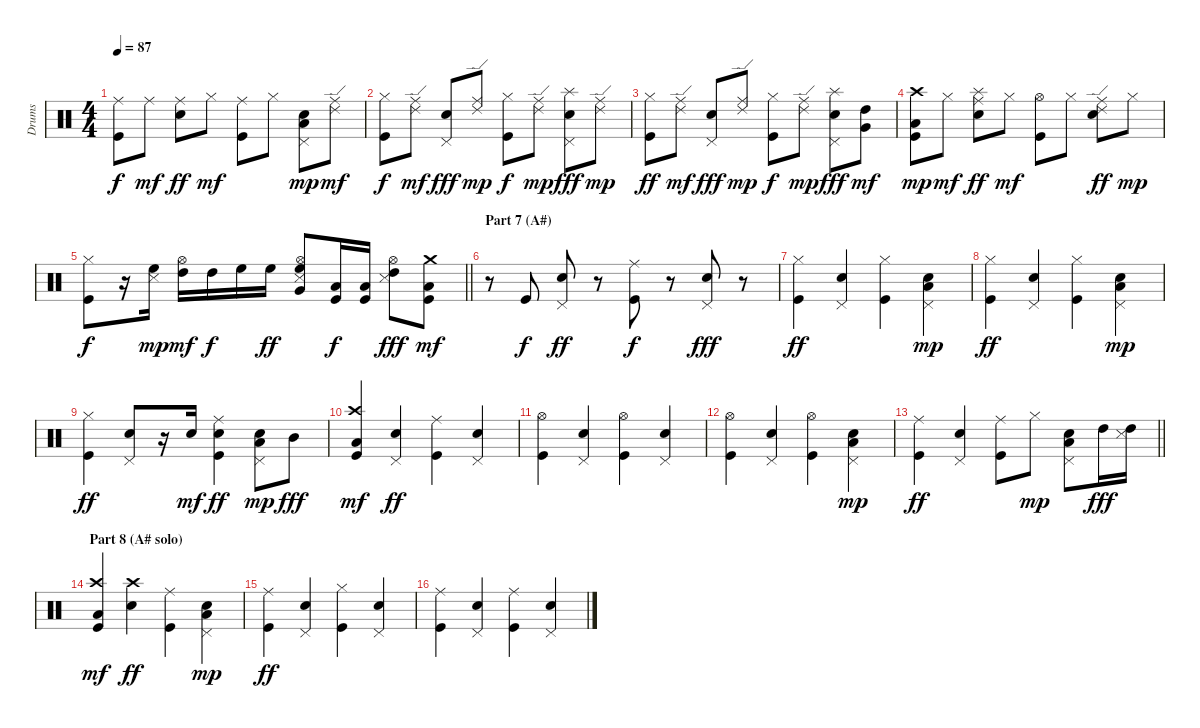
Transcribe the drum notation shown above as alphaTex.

\track ("Drums" "Drums") {instrument percussion}
\staff {score}
\articulation defaults
\ts (4 4)
\tempo 87
\clef neutral
\ks c
("Ride (middle)" "Kick (hit)").8{dy f} "Ride (middle)".8{dy mf} ("Ride (middle)" "Snare (hit) 2").8{dy ff} "Hi-Hat (closed)".8{dy mf} ("Ride (middle)" "Kick (hit)").8 "Hi-Hat (closed)".8 ("Pedal Hi-Hat (hit)" "Snare (hit) 2" "Low Tom (hit)").8{dy mp} ("Ride (middle)" "Ride (edge) 2").8{dy mf} |
("Hi-Hat (closed)" "Kick (hit)").8{dy f} ("Ride (middle)" "Ride (edge) 2").8{dy mf} ("Pedal Hi-Hat (hit)" "Snare (hit) 2").8{dy fff} ("Ride (middle)" "Ride (edge) 2").8{dy mp} ("Hi-Hat (closed)" "Kick (hit)").8{dy f} ("Ride (middle)" "Ride (edge) 2").8{dy mp} ("Splash (hit)" "Pedal Hi-Hat (hit)" "Snare (hit) 2").8{dy fff} ("Ride (middle)" "Ride (edge) 2").8{dy mp} |
("Hi-Hat (closed)" "Kick (hit)").8{dy ff} ("Ride (middle)" "Ride (edge) 2").8{dy mf} ("Pedal Hi-Hat (hit)" "Snare (hit) 2").8{dy fff} ("Ride (middle)" "Ride (edge) 2").8{dy mp} ("Hi-Hat (closed)" "Kick (hit)").8{dy f} ("Ride (middle)" "Ride (edge) 2").8{dy mp} ("Splash (hit)" "Pedal Hi-Hat (hit)" "Snare (hit) 2").8{dy fff} ("High Tom (hit)" "Very Low Tom (hit)").8{dy mf} |
("Crash high (hit)" "Kick (hit)" "Low Floor Tom (hit)").8{dy mp} "Hi-Hat (closed)".8{dy mf} ("Splash (hit)" "Ride (middle)" "Snare (hit) 2").8{dy ff} "Hi-Hat (closed)".8{dy mf} ("Hi-Hat (open)" "Kick (hit)").8 "Hi-Hat (closed)".8 ("Ride (edge) 2" "Ride (middle)" "Snare (hit) 2").8{dy ff} "Hi-Hat (closed)".8{dy mp} |
\barLineRight lightlight
("Hi-Hat (closed)" "Kick (hit)").8{dy f} r.16 ("High Floor Tom (hit)" "Snare (side stick) 3").16{dy mp} ("Hi-Hat (open)" "High Tom (hit)").16{dy mf} "High Tom (hit)".16{dy f} "High Floor Tom (hit)".16 "High Floor Tom (hit)".16{dy ff} ("Hi-Hat (open)" "Snare (side stick) 3" "High Floor Tom (hit)" "Very Low Tom (hit)").8 ("Low Tom (hit)" "Kick (hit)").16{dy f} ("Low Tom (hit)" "Kick (hit)").16 ("Hi-Hat (open)" "Snare (side stick) 3" "High Tom (hit)").8{dy fff} ("Crash medium (hit)" "Kick (hit)" "Low Floor Tom (hit)").8{dy mf} |
\section ("" "Part 7 (A#)")
r.8 "Kick (hit)".8{dy f} ("Pedal Hi-Hat (hit)" "Snare (hit) 2").8{dy ff} r.8 ("Ride (middle)" "Kick (hit)").8{dy f} r.8 ("Pedal Hi-Hat (hit)" "Snare (hit) 2").8{dy fff} r.8 |
("Hi-Hat (closed)" "Kick (hit)").4{dy ff} ("Pedal Hi-Hat (hit)" "Snare (hit) 2").4 ("Hi-Hat (closed)" "Kick (hit)").4 ("Pedal Hi-Hat (hit)" "Snare (hit) 2" "Low Tom (hit)").4{dy mp} |
("Hi-Hat (closed)" "Kick (hit)").4{dy ff} ("Pedal Hi-Hat (hit)" "Snare (hit) 2").4 ("Hi-Hat (closed)" "Kick (hit)").4 ("Pedal Hi-Hat (hit)" "Snare (hit) 2" "Low Tom (hit)").4{dy mp} |
("Hi-Hat (closed)" "Kick (hit)").4{dy ff} ("Pedal Hi-Hat (hit)" "Snare (hit) 2").8 r.16 "Snare (hit) 2".16{dy mf} ("Ride (middle)" "Snare (hit) 2" "Kick (hit)").4{dy ff} ("Pedal Hi-Hat (hit)" "Snare (hit) 2" "Low Tom (hit)").8{dy mp} "Mid Tom (hit)".8{dy fff} |
("Crash high (hit)" "Kick (hit)" "Low Floor Tom (hit)").4{dy mf} ("Pedal Hi-Hat (hit)" "Snare (hit) 2").4{dy ff} ("Ride (middle)" "Kick (hit)").4 ("Pedal Hi-Hat (hit)" "Snare (hit) 2").4 |
("Hi-Hat (open)" "Kick (hit)").4 ("Pedal Hi-Hat (hit)" "Snare (hit) 2").4 ("Hi-Hat (open)" "Kick (hit)").4 ("Pedal Hi-Hat (hit)" "Snare (hit) 2").4 |
("Hi-Hat (open)" "Kick (hit)").4 ("Pedal Hi-Hat (hit)" "Snare (hit) 2").4 ("Hi-Hat (open)" "Kick (hit)").4 ("Pedal Hi-Hat (hit)" "Snare (hit) 2" "Low Tom (hit)").4{dy mp} |
\barLineRight lightlight
("Ride (middle)" "Kick (hit)").4{dy ff} ("Pedal Hi-Hat (hit)" "Snare (hit) 2").4 ("Ride (middle)" "Kick (hit)").8 "Hi-Hat (closed)".8{dy mp} ("Pedal Hi-Hat (hit)" "Snare (hit) 2" "Low Tom (hit)").8 "High Tom (hit)".16{dy fff} ("High Tom (hit)" "Snare (side stick) 3").16 |
\section ("" "Part 8 (A# solo)")
("Crash high (hit)" "Kick (hit)" "Low Floor Tom (hit)").4{dy mf} ("Crash high (hit)" "Snare (hit) 2").4{dy ff} ("Ride (middle)" "Kick (hit)").4 ("Pedal Hi-Hat (hit)" "Snare (hit) 2" "Low Tom (hit)").4{dy mp} |
("Ride (middle)" "Kick (hit)").4{dy ff} ("Pedal Hi-Hat (hit)" "Snare (hit) 2").4 ("Hi-Hat (closed)" "Kick (hit)").4 ("Pedal Hi-Hat (hit)" "Snare (hit) 2").4 |
("Ride (middle)" "Kick (hit)").4 ("Pedal Hi-Hat (hit)" "Snare (hit) 2").4 ("Ride (middle)" "Kick (hit)").4 ("Pedal Hi-Hat (hit)" "Snare (hit) 2").4
